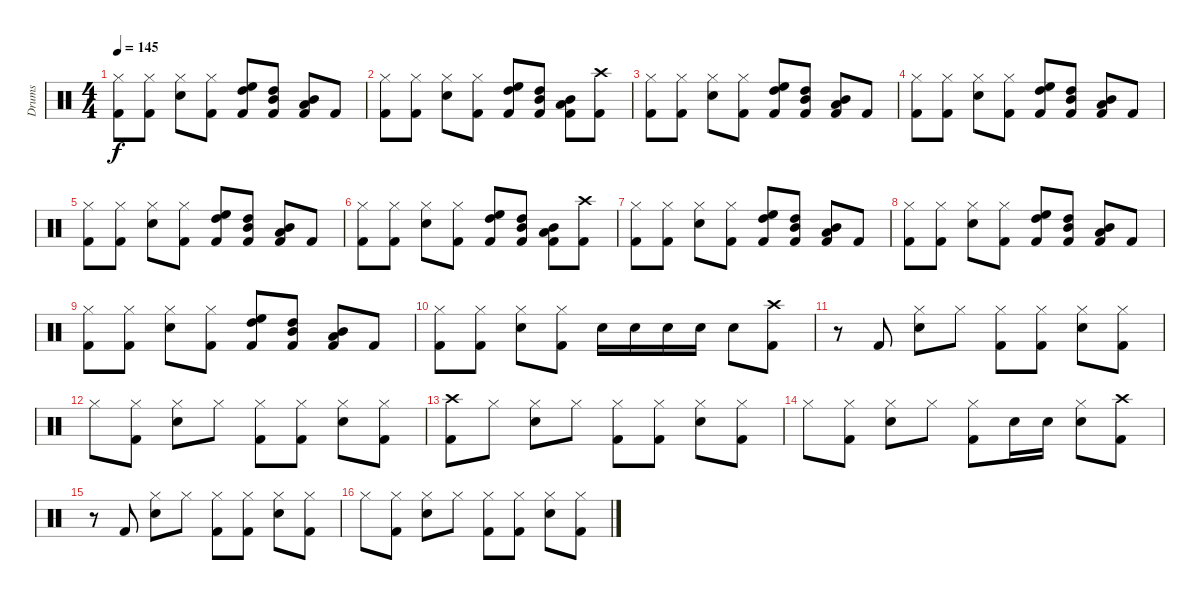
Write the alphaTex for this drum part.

\track ("Drums" "Drums") {instrument percussion}
\staff {score}
\articulation defaults
\ts (4 4)
\tempo 145
\clef neutral
\ks c
("Hi-Hat (closed)" "Kick (hit) 2").8{dy f} ("Hi-Hat (closed)" "Kick (hit) 2").8 ("Hi-Hat (closed)" "Snare (hit) 2").8 ("Hi-Hat (closed)" "Kick (hit) 2").8 ("High Floor Tom (hit)" "High Tom (hit)" "Kick (hit) 2").8 ("High Tom (hit)" "Mid Tom (hit)" "Kick (hit) 2").8 ("Mid Tom (hit)" "Low Tom (hit)" "Kick (hit) 2").8 "Kick (hit) 2".8 |
("Hi-Hat (closed)" "Kick (hit) 2").8 ("Hi-Hat (closed)" "Kick (hit) 2").8 ("Hi-Hat (closed)" "Snare (hit) 2").8 ("Hi-Hat (closed)" "Kick (hit) 2").8 ("High Floor Tom (hit)" "High Tom (hit)" "Kick (hit) 2").8 ("High Tom (hit)" "Mid Tom (hit)" "Kick (hit) 2").8 ("Mid Tom (hit)" "Low Tom (hit)" "Kick (hit) 2").8 ("Crash high (hit)" "Kick (hit) 2").8 |
("Hi-Hat (closed)" "Kick (hit) 2").8 ("Hi-Hat (closed)" "Kick (hit) 2").8 ("Hi-Hat (closed)" "Snare (hit) 2").8 ("Hi-Hat (closed)" "Kick (hit) 2").8 ("High Floor Tom (hit)" "High Tom (hit)" "Kick (hit) 2").8 ("High Tom (hit)" "Mid Tom (hit)" "Kick (hit) 2").8 ("Mid Tom (hit)" "Low Tom (hit)" "Kick (hit) 2").8 "Kick (hit) 2".8 |
("Hi-Hat (closed)" "Kick (hit) 2").8 ("Hi-Hat (closed)" "Kick (hit) 2").8 ("Hi-Hat (closed)" "Snare (hit) 2").8 ("Hi-Hat (closed)" "Kick (hit) 2").8 ("High Floor Tom (hit)" "High Tom (hit)" "Kick (hit) 2").8 ("High Tom (hit)" "Mid Tom (hit)" "Kick (hit) 2").8 ("Mid Tom (hit)" "Low Tom (hit)" "Kick (hit) 2").8 "Kick (hit) 2".8 |
("Hi-Hat (closed)" "Kick (hit) 2").8 ("Hi-Hat (closed)" "Kick (hit) 2").8 ("Hi-Hat (closed)" "Snare (hit) 2").8 ("Hi-Hat (closed)" "Kick (hit) 2").8 ("High Floor Tom (hit)" "High Tom (hit)" "Kick (hit) 2").8 ("High Tom (hit)" "Mid Tom (hit)" "Kick (hit) 2").8 ("Mid Tom (hit)" "Low Tom (hit)" "Kick (hit) 2").8 "Kick (hit) 2".8 |
("Hi-Hat (closed)" "Kick (hit) 2").8 ("Hi-Hat (closed)" "Kick (hit) 2").8 ("Hi-Hat (closed)" "Snare (hit) 2").8 ("Hi-Hat (closed)" "Kick (hit) 2").8 ("High Floor Tom (hit)" "High Tom (hit)" "Kick (hit) 2").8 ("High Tom (hit)" "Mid Tom (hit)" "Kick (hit) 2").8 ("Mid Tom (hit)" "Low Tom (hit)" "Kick (hit) 2").8 ("Crash high (hit)" "Kick (hit) 2").8 |
("Hi-Hat (closed)" "Kick (hit) 2").8 ("Hi-Hat (closed)" "Kick (hit) 2").8 ("Hi-Hat (closed)" "Snare (hit) 2").8 ("Hi-Hat (closed)" "Kick (hit) 2").8 ("High Floor Tom (hit)" "High Tom (hit)" "Kick (hit) 2").8 ("High Tom (hit)" "Mid Tom (hit)" "Kick (hit) 2").8 ("Mid Tom (hit)" "Low Tom (hit)" "Kick (hit) 2").8 "Kick (hit) 2".8 |
("Hi-Hat (closed)" "Kick (hit) 2").8 ("Hi-Hat (closed)" "Kick (hit) 2").8 ("Hi-Hat (closed)" "Snare (hit) 2").8 ("Hi-Hat (closed)" "Kick (hit) 2").8 ("High Floor Tom (hit)" "High Tom (hit)" "Kick (hit) 2").8 ("High Tom (hit)" "Mid Tom (hit)" "Kick (hit) 2").8 ("Mid Tom (hit)" "Low Tom (hit)" "Kick (hit) 2").8 "Kick (hit) 2".8 |
("Hi-Hat (closed)" "Kick (hit) 2").8 ("Hi-Hat (closed)" "Kick (hit) 2").8 ("Hi-Hat (closed)" "Snare (hit) 2").8 ("Hi-Hat (closed)" "Kick (hit) 2").8 ("High Floor Tom (hit)" "High Tom (hit)" "Kick (hit) 2").8 ("High Tom (hit)" "Mid Tom (hit)" "Kick (hit) 2").8 ("Mid Tom (hit)" "Low Tom (hit)" "Kick (hit) 2").8 "Kick (hit) 2".8 |
("Hi-Hat (closed)" "Kick (hit) 2").8 ("Hi-Hat (closed)" "Kick (hit) 2").8 ("Hi-Hat (closed)" "Snare (hit) 2").8 ("Hi-Hat (closed)" "Kick (hit) 2").8 "Snare (hit) 2".16 "Snare (hit) 2".16 "Snare (hit) 2".16 "Snare (hit) 2".16 "Snare (hit) 2".8 ("Crash high (hit)" "Kick (hit) 2").8 |
r.8 "Kick (hit) 2".8 ("Hi-Hat (closed)" "Snare (hit) 2").8 "Hi-Hat (closed)".8 ("Hi-Hat (closed)" "Kick (hit) 2").8 ("Hi-Hat (closed)" "Kick (hit) 2").8 ("Hi-Hat (closed)" "Snare (hit) 2").8 ("Hi-Hat (closed)" "Kick (hit) 2").8 |
"Hi-Hat (closed)".8 ("Hi-Hat (closed)" "Kick (hit) 2").8 ("Hi-Hat (closed)" "Snare (hit) 2").8 "Hi-Hat (closed)".8 ("Hi-Hat (closed)" "Kick (hit) 2").8 ("Hi-Hat (closed)" "Kick (hit) 2").8 ("Hi-Hat (closed)" "Snare (hit) 2").8 ("Hi-Hat (closed)" "Kick (hit) 2").8 |
("Crash high (hit)" "Kick (hit) 2").8 "Hi-Hat (closed)".8 ("Hi-Hat (closed)" "Snare (hit) 2").8 "Hi-Hat (closed)".8 ("Hi-Hat (closed)" "Kick (hit) 2").8 ("Hi-Hat (closed)" "Kick (hit) 2").8 ("Hi-Hat (closed)" "Snare (hit) 2").8 ("Hi-Hat (closed)" "Kick (hit) 2").8 |
"Hi-Hat (closed)".8 ("Hi-Hat (closed)" "Kick (hit) 2").8 ("Hi-Hat (closed)" "Snare (hit) 2").8 "Hi-Hat (closed)".8 ("Hi-Hat (closed)" "Kick (hit) 2").8 "Snare (hit) 2".16 "Snare (hit) 2".16 ("Hi-Hat (closed)" "Snare (hit) 2").8 ("Crash high (hit)" "Kick (hit) 2").8 |
r.8 "Kick (hit) 2".8 ("Hi-Hat (closed)" "Snare (hit) 2").8 "Hi-Hat (closed)".8 ("Hi-Hat (closed)" "Kick (hit) 2").8 ("Hi-Hat (closed)" "Kick (hit) 2").8 ("Hi-Hat (closed)" "Snare (hit) 2").8 ("Hi-Hat (closed)" "Kick (hit) 2").8 |
"Hi-Hat (closed)".8 ("Hi-Hat (closed)" "Kick (hit) 2").8 ("Hi-Hat (closed)" "Snare (hit) 2").8 "Hi-Hat (closed)".8 ("Hi-Hat (closed)" "Kick (hit) 2").8 ("Hi-Hat (closed)" "Kick (hit) 2").8 ("Hi-Hat (closed)" "Snare (hit) 2").8 ("Hi-Hat (closed)" "Kick (hit) 2").8
